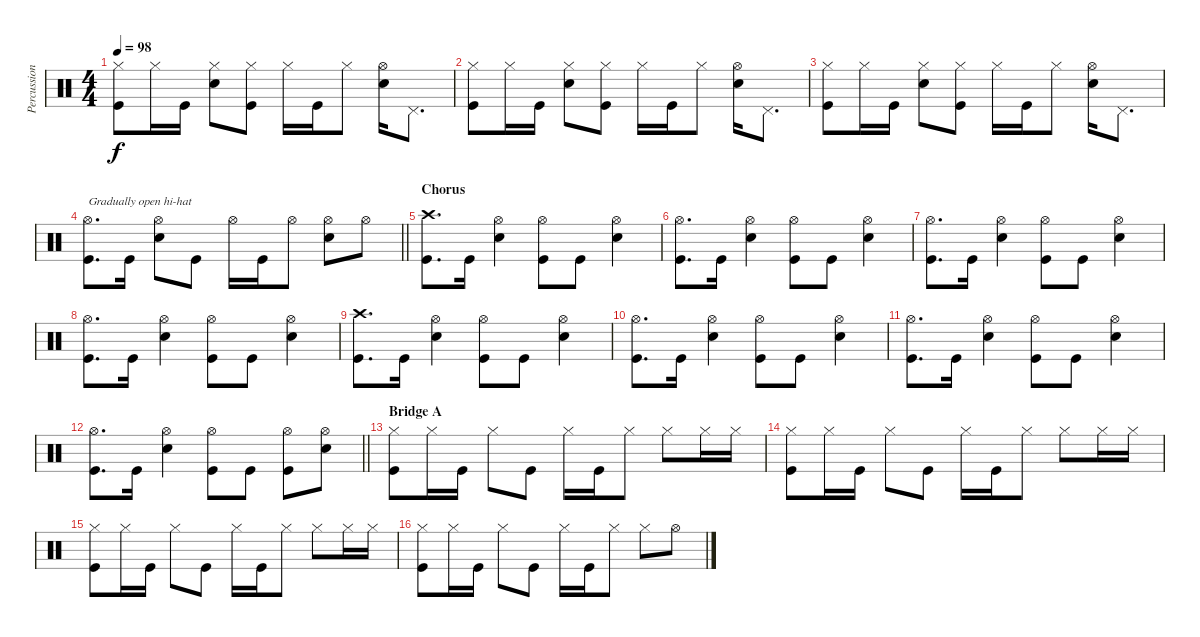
\track ("Percussion" "Percussion") {instrument percussion}
\staff {score}
\articulation defaults
\ts (4 4)
\tempo 98
\clef neutral
\ks c
("Hi-Hat (closed)" "Kick (hit)").8{dy f} "Hi-Hat (closed)".16 "Kick (hit)".16 ("Hi-Hat (closed)" "Electric Snare (hit)").8 ("Hi-Hat (closed)" "Kick (hit)").8 "Hi-Hat (closed)".16 "Kick (hit)".16 "Hi-Hat (closed)".8 ("Hi-Hat (open)" "Electric Snare (hit)").16 "Pedal Hi-Hat (hit)".8{d} |
("Hi-Hat (closed)" "Kick (hit)").8 "Hi-Hat (closed)".16 "Kick (hit)".16 ("Hi-Hat (closed)" "Electric Snare (hit)").8 ("Hi-Hat (closed)" "Kick (hit)").8 "Hi-Hat (closed)".16 "Kick (hit)".16 "Hi-Hat (closed)".8 ("Hi-Hat (open)" "Electric Snare (hit)").16 "Pedal Hi-Hat (hit)".8{d} |
("Hi-Hat (closed)" "Kick (hit)").8 "Hi-Hat (closed)".16 "Kick (hit)".16 ("Hi-Hat (closed)" "Electric Snare (hit)").8 ("Hi-Hat (closed)" "Kick (hit)").8 "Hi-Hat (closed)".16 "Kick (hit)".16 "Hi-Hat (closed)".8 ("Hi-Hat (open)" "Electric Snare (hit)").16 "Pedal Hi-Hat (hit)".8{d} |
\barLineRight lightlight
("Hi-Hat (open)" "Kick (hit)").8{d txt "Gradually open hi-hat"} "Kick (hit)".16 ("Hi-Hat (open)" "Electric Snare (hit)").8 "Kick (hit)".8 "Hi-Hat (open)".16 "Kick (hit)".16 "Hi-Hat (open)".8 ("Hi-Hat (open)" "Electric Snare (hit)").8 "Hi-Hat (open)".8 |
\section ("" "Chorus")
("Crash high (hit)" "Kick (hit)").8{d} "Kick (hit)".16 ("Hi-Hat (open)" "Electric Snare (hit)").4 ("Hi-Hat (open)" "Kick (hit)").8 "Kick (hit)".8 ("Hi-Hat (open)" "Electric Snare (hit)").4 |
("Hi-Hat (open)" "Kick (hit)").8{d} "Kick (hit)".16 ("Hi-Hat (open)" "Electric Snare (hit)").4 ("Hi-Hat (open)" "Kick (hit)").8 "Kick (hit)".8 ("Hi-Hat (open)" "Electric Snare (hit)").4 |
("Hi-Hat (open)" "Kick (hit)").8{d} "Kick (hit)".16 ("Hi-Hat (open)" "Electric Snare (hit)").4 ("Hi-Hat (open)" "Kick (hit)").8 "Kick (hit)".8 ("Hi-Hat (open)" "Electric Snare (hit)").4 |
("Hi-Hat (open)" "Kick (hit)").8{d} "Kick (hit)".16 ("Hi-Hat (open)" "Electric Snare (hit)").4 ("Hi-Hat (open)" "Kick (hit)").8 "Kick (hit)".8 ("Hi-Hat (open)" "Electric Snare (hit)").4 |
("Crash high (hit)" "Kick (hit)").8{d} "Kick (hit)".16 ("Hi-Hat (open)" "Electric Snare (hit)").4 ("Hi-Hat (open)" "Kick (hit)").8 "Kick (hit)".8 ("Hi-Hat (open)" "Electric Snare (hit)").4 |
("Hi-Hat (open)" "Kick (hit)").8{d} "Kick (hit)".16 ("Hi-Hat (open)" "Electric Snare (hit)").4 ("Hi-Hat (open)" "Kick (hit)").8 "Kick (hit)".8 ("Hi-Hat (open)" "Electric Snare (hit)").4 |
("Hi-Hat (open)" "Kick (hit)").8{d} "Kick (hit)".16 ("Hi-Hat (open)" "Electric Snare (hit)").4 ("Hi-Hat (open)" "Kick (hit)").8 "Kick (hit)".8 ("Hi-Hat (open)" "Electric Snare (hit)").4 |
\barLineRight lightlight
("Hi-Hat (open)" "Kick (hit)").8{d} "Kick (hit)".16 ("Hi-Hat (open)" "Electric Snare (hit)").4 ("Hi-Hat (open)" "Kick (hit)").8 "Kick (hit)".8 ("Hi-Hat (open)" "Kick (hit)").8 ("Hi-Hat (open)" "Electric Snare (hit)").8 |
\section ("" "Bridge A")
("Hi-Hat (closed)" "Kick (hit)").8 "Hi-Hat (closed)".16 "Kick (hit)".16 "Hi-Hat (closed)".8 "Kick (hit)".8 "Hi-Hat (closed)".16 "Kick (hit)".16 "Hi-Hat (closed)".8 "Hi-Hat (closed)".8 "Hi-Hat (closed)".16 "Hi-Hat (closed)".16 |
("Hi-Hat (closed)" "Kick (hit)").8 "Hi-Hat (closed)".16 "Kick (hit)".16 "Hi-Hat (closed)".8 "Kick (hit)".8 "Hi-Hat (closed)".16 "Kick (hit)".16 "Hi-Hat (closed)".8 "Hi-Hat (closed)".8 "Hi-Hat (closed)".16 "Hi-Hat (closed)".16 |
("Hi-Hat (closed)" "Kick (hit)").8 "Hi-Hat (closed)".16 "Kick (hit)".16 "Hi-Hat (closed)".8 "Kick (hit)".8 "Hi-Hat (closed)".16 "Kick (hit)".16 "Hi-Hat (closed)".8 "Hi-Hat (closed)".8 "Hi-Hat (closed)".16 "Hi-Hat (closed)".16 |
("Hi-Hat (closed)" "Kick (hit)").8 "Hi-Hat (closed)".16 "Kick (hit)".16 "Hi-Hat (closed)".8 "Kick (hit)".8 "Hi-Hat (closed)".16 "Kick (hit)".16 "Hi-Hat (closed)".8 "Hi-Hat (closed)".8 "Hi-Hat (open)".8
